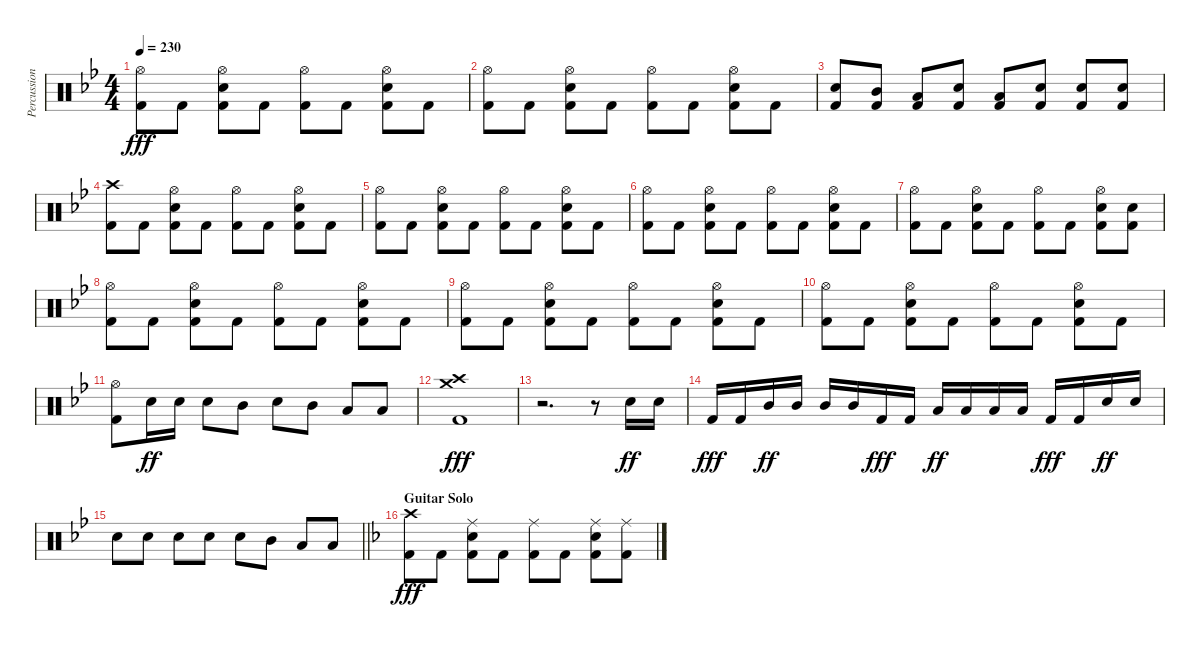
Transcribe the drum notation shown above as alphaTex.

\track ("Percussion" "Percussion") {instrument percussion}
\staff {score}
\articulation defaults
\ts (4 4)
\tempo 230
\clef neutral
\ks gminor
("Hi-Hat (open)" "Kick (hit) 2").8{dy fff} "Kick (hit) 2".8 ("Hi-Hat (open)" "Electric Snare (hit)" "Kick (hit) 2").8 "Kick (hit) 2".8 ("Hi-Hat (open)" "Kick (hit) 2").8 "Kick (hit) 2".8 ("Hi-Hat (open)" "Electric Snare (hit)" "Kick (hit) 2").8 "Kick (hit) 2".8 |
("Hi-Hat (open)" "Kick (hit) 2").8 "Kick (hit) 2".8 ("Hi-Hat (open)" "Electric Snare (hit)" "Kick (hit) 2").8 "Kick (hit) 2".8 ("Hi-Hat (open)" "Kick (hit) 2").8 "Kick (hit) 2".8 ("Hi-Hat (open)" "Electric Snare (hit)" "Kick (hit) 2").8 "Kick (hit) 2".8 |
("Electric Snare (hit)" "Kick (hit) 2").8 ("Mid Tom (hit)" "Kick (hit) 2").8 ("Low Tom (hit)" "Kick (hit) 2").8 ("Electric Snare (hit)" "Kick (hit) 2").8 ("Low Tom (hit)" "Kick (hit) 2").8 ("Electric Snare (hit)" "Kick (hit) 2").8 ("Electric Snare (hit)" "Kick (hit) 2").8 ("Electric Snare (hit)" "Kick (hit) 2").8 |
("Crash high (hit)" "Kick (hit) 2").8 "Kick (hit) 2".8 ("Hi-Hat (open)" "Electric Snare (hit)" "Kick (hit) 2").8 "Kick (hit) 2".8 ("Hi-Hat (open)" "Kick (hit) 2").8 "Kick (hit) 2".8 ("Hi-Hat (open)" "Electric Snare (hit)" "Kick (hit) 2").8 "Kick (hit) 2".8 |
("Hi-Hat (open)" "Kick (hit) 2").8 "Kick (hit) 2".8 ("Hi-Hat (open)" "Electric Snare (hit)" "Kick (hit) 2").8 "Kick (hit) 2".8 ("Hi-Hat (open)" "Kick (hit) 2").8 "Kick (hit) 2".8 ("Hi-Hat (open)" "Electric Snare (hit)" "Kick (hit) 2").8 "Kick (hit) 2".8 |
("Hi-Hat (open)" "Kick (hit) 2").8 "Kick (hit) 2".8 ("Hi-Hat (open)" "Electric Snare (hit)" "Kick (hit) 2").8 "Kick (hit) 2".8 ("Hi-Hat (open)" "Kick (hit) 2").8 "Kick (hit) 2".8 ("Hi-Hat (open)" "Electric Snare (hit)" "Kick (hit) 2").8 "Kick (hit) 2".8 |
("Hi-Hat (open)" "Kick (hit) 2").8 "Kick (hit) 2".8 ("Hi-Hat (open)" "Electric Snare (hit)" "Kick (hit) 2").8 "Kick (hit) 2".8 ("Hi-Hat (open)" "Kick (hit) 2").8 "Kick (hit) 2".8 ("Hi-Hat (open)" "Electric Snare (hit)" "Kick (hit) 2").8 ("Electric Snare (hit)" "Kick (hit) 2").8 |
("Hi-Hat (open)" "Kick (hit) 2").8 "Kick (hit) 2".8 ("Hi-Hat (open)" "Electric Snare (hit)" "Kick (hit) 2").8 "Kick (hit) 2".8 ("Hi-Hat (open)" "Kick (hit) 2").8 "Kick (hit) 2".8 ("Hi-Hat (open)" "Electric Snare (hit)" "Kick (hit) 2").8 "Kick (hit) 2".8 |
("Hi-Hat (open)" "Kick (hit) 2").8 "Kick (hit) 2".8 ("Hi-Hat (open)" "Electric Snare (hit)" "Kick (hit) 2").8 "Kick (hit) 2".8 ("Hi-Hat (open)" "Kick (hit) 2").8 "Kick (hit) 2".8 ("Hi-Hat (open)" "Electric Snare (hit)" "Kick (hit) 2").8 "Kick (hit) 2".8 |
("Hi-Hat (open)" "Kick (hit) 2").8 "Kick (hit) 2".8 ("Hi-Hat (open)" "Electric Snare (hit)" "Kick (hit) 2").8 "Kick (hit) 2".8 ("Hi-Hat (open)" "Kick (hit) 2").8 "Kick (hit) 2".8 ("Hi-Hat (open)" "Electric Snare (hit)" "Kick (hit) 2").8 "Kick (hit) 2".8 |
("Hi-Hat (open)" "Kick (hit) 2").8 "Electric Snare (hit)".16{dy ff} "Electric Snare (hit)".16 "Electric Snare (hit)".8 "Mid Tom (hit)".8 "Electric Snare (hit)".8 "Mid Tom (hit)".8 "Low Tom (hit)".8 "Low Tom (hit)".8 |
("Crash high (hit)" "Crash medium (hit)" "Kick (hit) 2").1{dy fff} |
r.2{d} r.8 "Electric Snare (hit)".16{dy ff} "Electric Snare (hit)".16 |
"Kick (hit) 2".16{dy fff} "Kick (hit) 2".16 "Mid Tom (hit)".16{dy ff} "Mid Tom (hit)".16 "Mid Tom (hit)".16 "Mid Tom (hit)".16 "Kick (hit) 2".16{dy fff} "Kick (hit) 2".16 "Low Tom (hit)".16{dy ff} "Low Tom (hit)".16 "Low Tom (hit)".16 "Low Tom (hit)".16 "Kick (hit) 2".16{dy fff} "Kick (hit) 2".16 "Electric Snare (hit)".16{dy ff} "Electric Snare (hit)".16 |
\barLineRight lightlight "Electric Snare (hit)".8 "Electric Snare (hit)".8 "Electric Snare (hit)".8 "Electric Snare (hit)".8 "Electric Snare (hit)".8 "Mid Tom (hit)".8 "Low Tom (hit)".8 "Low Tom (hit)".8
|
\section ("" "Guitar Solo")
\ks dminor
("Crash high (hit)" "Kick (hit) 2").8{dy fff} "Kick (hit) 2".8 ("Ride (middle)" "Electric Snare (hit)" "Kick (hit) 2").8 "Kick (hit) 2".8 ("Ride (middle)" "Kick (hit) 2").8 "Kick (hit) 2".8 ("Ride (middle)" "Electric Snare (hit)" "Kick (hit) 2").8 ("Ride (middle)" "Kick (hit) 2").8
